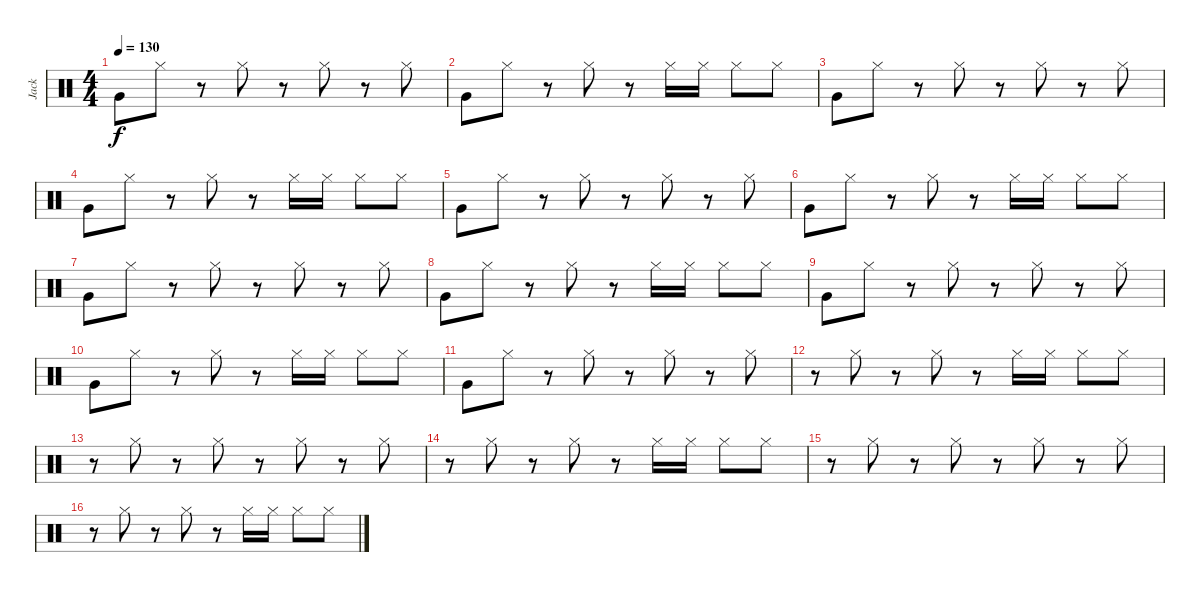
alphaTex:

\track ("Jack" "Jack") {instrument percussion}
\staff {score}
\articulation defaults
\ts (4 4)
\tempo 130
\clef neutral
\ks c "Very Low Tom (hit)".8{dy f} "Hi-Hat (closed)".8
r.8 "Hi-Hat (closed)".8 r.8 "Hi-Hat (closed)".8 r.8 "Hi-Hat (closed)".8 |
"Very Low Tom (hit)".8 "Hi-Hat (closed)".8 r.8 "Hi-Hat (closed)".8 r.8 "Hi-Hat (closed)".16 "Hi-Hat (closed)".16 "Hi-Hat (closed)".8 "Hi-Hat (closed)".8 |
"Very Low Tom (hit)".8 "Hi-Hat (closed)".8 r.8 "Hi-Hat (closed)".8 r.8 "Hi-Hat (closed)".8 r.8 "Hi-Hat (closed)".8 |
"Very Low Tom (hit)".8 "Hi-Hat (closed)".8 r.8 "Hi-Hat (closed)".8 r.8 "Hi-Hat (closed)".16 "Hi-Hat (closed)".16 "Hi-Hat (closed)".8 "Hi-Hat (closed)".8 |
"Very Low Tom (hit)".8 "Hi-Hat (closed)".8 r.8 "Hi-Hat (closed)".8 r.8 "Hi-Hat (closed)".8 r.8 "Hi-Hat (closed)".8 |
"Very Low Tom (hit)".8 "Hi-Hat (closed)".8 r.8 "Hi-Hat (closed)".8 r.8 "Hi-Hat (closed)".16 "Hi-Hat (closed)".16 "Hi-Hat (closed)".8 "Hi-Hat (closed)".8 |
"Very Low Tom (hit)".8 "Hi-Hat (closed)".8 r.8 "Hi-Hat (closed)".8 r.8 "Hi-Hat (closed)".8 r.8 "Hi-Hat (closed)".8 |
"Very Low Tom (hit)".8 "Hi-Hat (closed)".8 r.8 "Hi-Hat (closed)".8 r.8 "Hi-Hat (closed)".16 "Hi-Hat (closed)".16 "Hi-Hat (closed)".8 "Hi-Hat (closed)".8 |
"Very Low Tom (hit)".8 "Hi-Hat (closed)".8 r.8 "Hi-Hat (closed)".8 r.8 "Hi-Hat (closed)".8 r.8 "Hi-Hat (closed)".8 |
"Very Low Tom (hit)".8 "Hi-Hat (closed)".8 r.8 "Hi-Hat (closed)".8 r.8 "Hi-Hat (closed)".16 "Hi-Hat (closed)".16 "Hi-Hat (closed)".8 "Hi-Hat (closed)".8 |
"Very Low Tom (hit)".8 "Hi-Hat (closed)".8 r.8 "Hi-Hat (closed)".8 r.8 "Hi-Hat (closed)".8 r.8 "Hi-Hat (closed)".8 |
r.8 "Hi-Hat (closed)".8 r.8 "Hi-Hat (closed)".8 r.8 "Hi-Hat (closed)".16 "Hi-Hat (closed)".16 "Hi-Hat (closed)".8 "Hi-Hat (closed)".8 |
r.8 "Hi-Hat (closed)".8 r.8 "Hi-Hat (closed)".8 r.8 "Hi-Hat (closed)".8 r.8 "Hi-Hat (closed)".8 |
r.8 "Hi-Hat (closed)".8 r.8 "Hi-Hat (closed)".8 r.8 "Hi-Hat (closed)".16 "Hi-Hat (closed)".16 "Hi-Hat (closed)".8 "Hi-Hat (closed)".8 |
r.8 "Hi-Hat (closed)".8 r.8 "Hi-Hat (closed)".8 r.8 "Hi-Hat (closed)".8 r.8 "Hi-Hat (closed)".8 |
r.8 "Hi-Hat (closed)".8 r.8 "Hi-Hat (closed)".8 r.8 "Hi-Hat (closed)".16 "Hi-Hat (closed)".16 "Hi-Hat (closed)".8 "Hi-Hat (closed)".8
